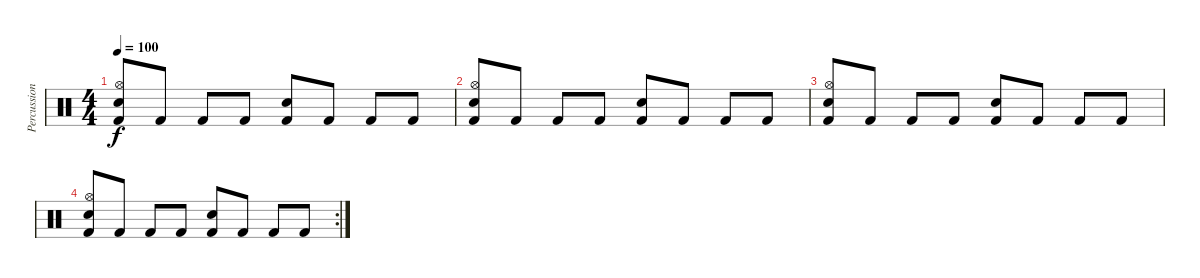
\track ("Percussioni" "Percussion") {instrument percussion}
\staff {score}
\articulation defaults
\ts (4 4)
\tempo 100
\clef neutral
\ks c
("Snare (hit) 2" "Hi-Hat (open)" "Kick (hit) 2").8{dy f} "Kick (hit) 2".8 "Kick (hit) 2".8 "Kick (hit) 2".8 ("Snare (hit) 2" "Kick (hit) 2").8 "Kick (hit) 2".8 "Kick (hit) 2".8 "Kick (hit) 2".8 |
("Snare (hit) 2" "Hi-Hat (open)" "Kick (hit) 2").8 "Kick (hit) 2".8 "Kick (hit) 2".8 "Kick (hit) 2".8 ("Snare (hit) 2" "Kick (hit) 2").8 "Kick (hit) 2".8 "Kick (hit) 2".8 "Kick (hit) 2".8 |
("Snare (hit) 2" "Hi-Hat (open)" "Kick (hit) 2").8 "Kick (hit) 2".8 "Kick (hit) 2".8 "Kick (hit) 2".8 ("Snare (hit) 2" "Kick (hit) 2").8 "Kick (hit) 2".8 "Kick (hit) 2".8 "Kick (hit) 2".8 |
\rc 2
("Snare (hit) 2" "Hi-Hat (open)" "Kick (hit) 2").8 "Kick (hit) 2".8 "Kick (hit) 2".8 "Kick (hit) 2".8 ("Snare (hit) 2" "Kick (hit) 2").8 "Kick (hit) 2".8 "Kick (hit) 2".8 "Kick (hit) 2".8
